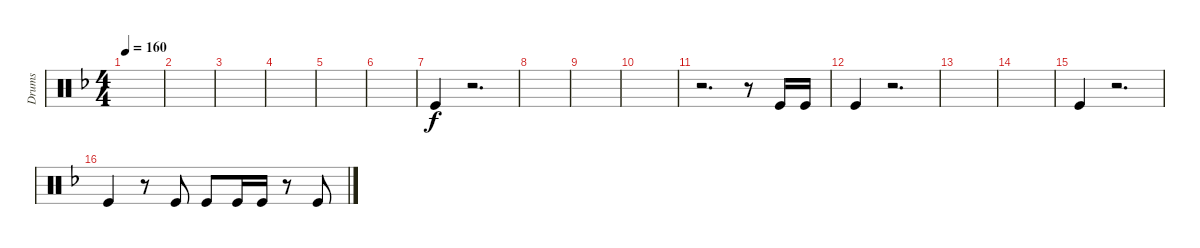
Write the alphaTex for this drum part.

\track ("Drums" "Drums") {instrument percussion}
\staff {score}
\articulation defaults
\ts (4 4)
\tempo 160
\clef neutral
\ks f
|
|
|
|
|
|
"Kick (hit)".4 r.2{d} |
|
|
|
r.2{d} r.8 "Kick (hit)".16 "Kick (hit)".16 |
"Kick (hit)".4 r.2{d} |
|
|
"Kick (hit)".4 r.2{d} |
"Kick (hit)".4 r.8 "Kick (hit)".8 "Kick (hit)".8 "Kick (hit)".16 "Kick (hit)".16 r.8 "Kick (hit)".8
